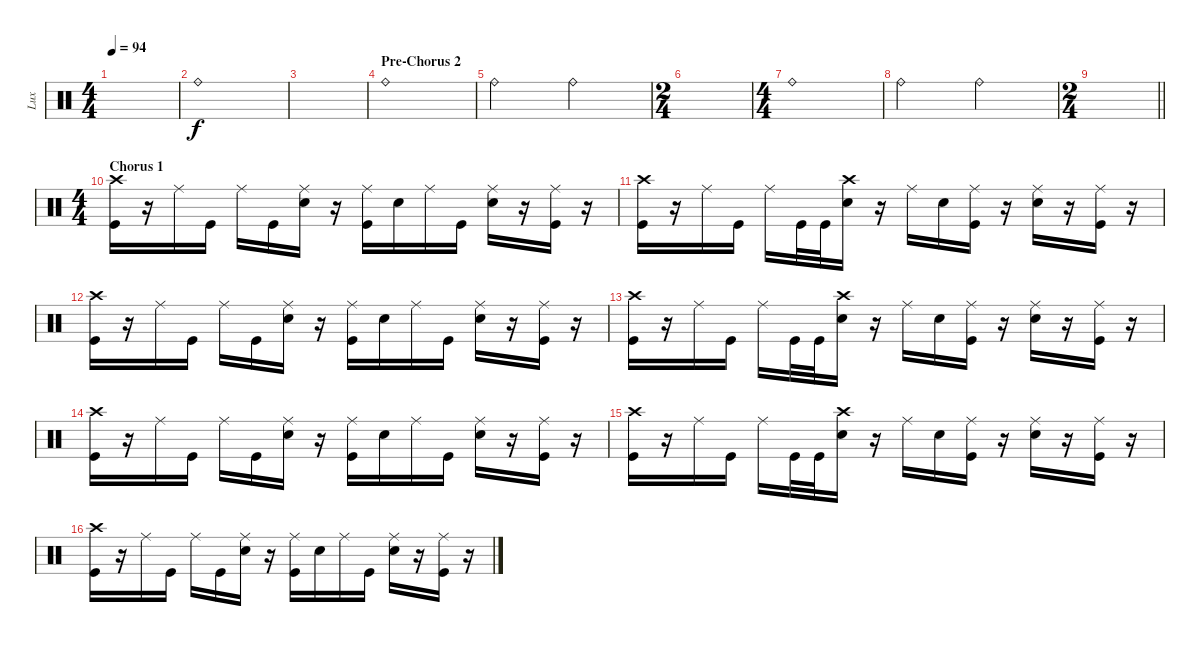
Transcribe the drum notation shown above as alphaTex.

\track ("Lux" "Lux") {instrument percussion}
\staff {score}
\articulation defaults
\ts (4 4)
\tempo 94
\clef neutral
\ks c
|
"Ride (bell)".1 |
|
\section ("" "Pre-Chorus 2")
"Ride (bell)".1 |
"Ride (bell)".2 "Ride (bell)".2 |
\ts (2 4)
|
\ts (4 4)
"Ride (bell)".1 |
"Ride (bell)".2 "Ride (bell)".2 |
\ts (2 4)
\barLineRight lightlight
|
\ts (4 4)
\section ("" "Chorus 1")
("Crash high (hit)" "Kick (hit)").16 r.16 "Ride (middle)".16 "Kick (hit)".16 "Ride (middle)".16 "Kick (hit)".16 ("Ride (middle)" "Snare (hit) 2").16 r.16 ("Ride (middle)" "Kick (hit)").16 "Snare (hit) 2".16 "Ride (middle)".16 "Kick (hit)".16 ("Ride (middle)" "Snare (hit) 2").16 r.16 ("Ride (middle)" "Kick (hit)").16 r.16 |
("Crash high (hit)" "Kick (hit)").16 r.16 "Ride (middle)".16 "Kick (hit)".16 "Ride (middle)".16 "Kick (hit)".32 "Kick (hit)".32 ("Crash high (hit)" "Snare (hit) 2").16 r.16 "Ride (middle)".16 "Snare (hit) 2".16 ("Ride (middle)" "Kick (hit)").16 r.16 ("Ride (middle)" "Snare (hit) 2").16 r.16 ("Ride (middle)" "Kick (hit)").16 r.16 |
("Crash high (hit)" "Kick (hit)").16 r.16 "Ride (middle)".16 "Kick (hit)".16 "Ride (middle)".16 "Kick (hit)".16 ("Ride (middle)" "Snare (hit) 2").16 r.16 ("Ride (middle)" "Kick (hit)").16 "Snare (hit) 2".16 "Ride (middle)".16 "Kick (hit)".16 ("Ride (middle)" "Snare (hit) 2").16 r.16 ("Ride (middle)" "Kick (hit)").16 r.16 |
("Crash high (hit)" "Kick (hit)").16 r.16 "Ride (middle)".16 "Kick (hit)".16 "Ride (middle)".16 "Kick (hit)".32 "Kick (hit)".32 ("Crash high (hit)" "Snare (hit) 2").16 r.16 "Ride (middle)".16 "Snare (hit) 2".16 ("Ride (middle)" "Kick (hit)").16 r.16 ("Ride (middle)" "Snare (hit) 2").16 r.16 ("Ride (middle)" "Kick (hit)").16 r.16 |
("Crash high (hit)" "Kick (hit)").16 r.16 "Ride (middle)".16 "Kick (hit)".16 "Ride (middle)".16 "Kick (hit)".16 ("Ride (middle)" "Snare (hit) 2").16 r.16 ("Ride (middle)" "Kick (hit)").16 "Snare (hit) 2".16 "Ride (middle)".16 "Kick (hit)".16 ("Ride (middle)" "Snare (hit) 2").16 r.16 ("Ride (middle)" "Kick (hit)").16 r.16 |
("Crash high (hit)" "Kick (hit)").16 r.16 "Ride (middle)".16 "Kick (hit)".16 "Ride (middle)".16 "Kick (hit)".32 "Kick (hit)".32 ("Crash high (hit)" "Snare (hit) 2").16 r.16 "Ride (middle)".16 "Snare (hit) 2".16 ("Ride (middle)" "Kick (hit)").16 r.16 ("Ride (middle)" "Snare (hit) 2").16 r.16 ("Ride (middle)" "Kick (hit)").16 r.16 |
("Crash high (hit)" "Kick (hit)").16 r.16 "Ride (middle)".16 "Kick (hit)".16 "Ride (middle)".16 "Kick (hit)".16 ("Ride (middle)" "Snare (hit) 2").16 r.16 ("Ride (middle)" "Kick (hit)").16 "Snare (hit) 2".16 "Ride (middle)".16 "Kick (hit)".16 ("Ride (middle)" "Snare (hit) 2").16 r.16 ("Ride (middle)" "Kick (hit)").16 r.16
